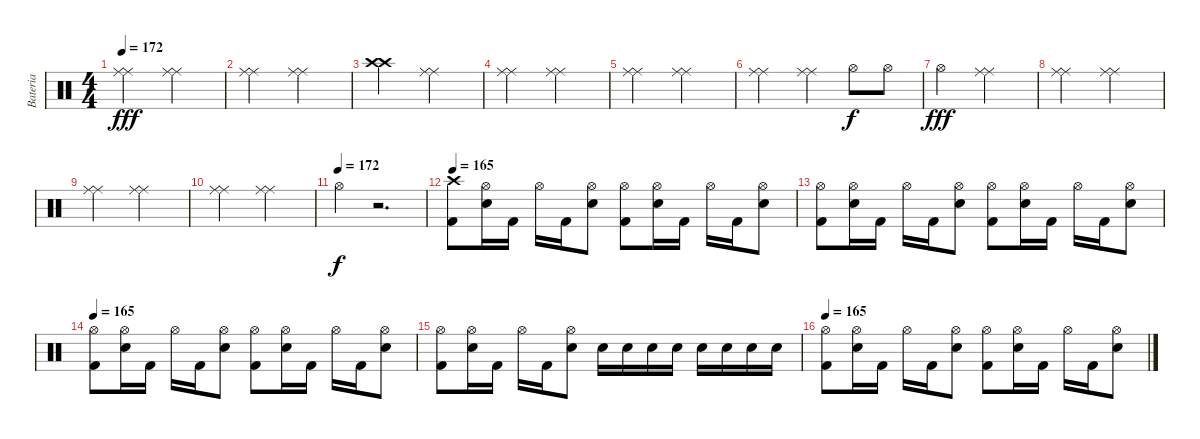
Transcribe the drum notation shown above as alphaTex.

\track ("Bateria" "Bateria") {instrument percussion}
\staff {score}
\articulation defaults
\ts (4 4)
\tempo 172
\clef neutral
\ks c
("Ride (middle)" "Ride (middle)").2{dy fff} ("Ride (middle)" "Ride (middle)").2 |
("Ride (middle)" "Ride (middle)").2 ("Ride (middle)" "Ride (middle)").2 |
("Crash high (hit)" "Crash high (hit)").2 ("Ride (middle)" "Ride (middle)").2 |
("Ride (middle)" "Ride (middle)").2 ("Ride (middle)" "Ride (middle)").2 |
("Ride (middle)" "Ride (middle)").2 ("Ride (middle)" "Ride (middle)").2 |
("Ride (middle)" "Ride (middle)").2 ("Ride (middle)" "Ride (middle)").4 "Hi-Hat (open)".8{dy f} "Hi-Hat (open)".8 |
"Hi-Hat (open)".2{dy fff} ("Ride (middle)" "Ride (middle)").2 |
("Ride (middle)" "Ride (middle)").2 ("Ride (middle)" "Ride (middle)").2 |
("Ride (middle)" "Ride (middle)").2 ("Ride (middle)" "Ride (middle)").2 |
("Ride (middle)" "Ride (middle)").2 ("Ride (middle)" "Ride (middle)").2 |
\tempo (172)
"Hi-Hat (open)".4{dy f} r.2{d} |
\tempo 165
("Crash high (hit)" "Kick (hit) 2").8 ("Hi-Hat (open)" "Electric Snare (hit)").16 "Kick (hit) 2".16 "Hi-Hat (open)".16 "Kick (hit) 2".16 ("Hi-Hat (open)" "Electric Snare (hit)").8 ("Hi-Hat (open)" "Kick (hit) 2").8 ("Hi-Hat (open)" "Electric Snare (hit)").16 "Kick (hit) 2".16 "Hi-Hat (open)".16 "Kick (hit) 2".16 ("Hi-Hat (open)" "Electric Snare (hit)").8 |
("Hi-Hat (open)" "Kick (hit) 2").8 ("Hi-Hat (open)" "Electric Snare (hit)").16 "Kick (hit) 2".16 "Hi-Hat (open)".16 "Kick (hit) 2".16 ("Hi-Hat (open)" "Electric Snare (hit)").8 ("Hi-Hat (open)" "Kick (hit) 2").8 ("Hi-Hat (open)" "Electric Snare (hit)").16 "Kick (hit) 2".16 "Hi-Hat (open)".16 "Kick (hit) 2".16 ("Hi-Hat (open)" "Electric Snare (hit)").8 |
\tempo 165
("Hi-Hat (open)" "Kick (hit) 2").8 ("Hi-Hat (open)" "Electric Snare (hit)").16 "Kick (hit) 2".16 "Hi-Hat (open)".16 "Kick (hit) 2".16 ("Hi-Hat (open)" "Electric Snare (hit)").8 ("Hi-Hat (open)" "Kick (hit) 2").8 ("Hi-Hat (open)" "Electric Snare (hit)").16 "Kick (hit) 2".16 "Hi-Hat (open)".16 "Kick (hit) 2".16 ("Hi-Hat (open)" "Electric Snare (hit)").8 |
("Hi-Hat (open)" "Kick (hit) 2").8 ("Hi-Hat (open)" "Electric Snare (hit)").16 "Kick (hit) 2".16 "Hi-Hat (open)".16 "Kick (hit) 2".16 ("Hi-Hat (open)" "Electric Snare (hit)").8 "Electric Snare (hit)".16 "Electric Snare (hit)".16 "Electric Snare (hit)".16 "Electric Snare (hit)".16 "Electric Snare (hit)".16 "Electric Snare (hit)".16 "Electric Snare (hit)".16 "Electric Snare (hit)".16 |
\tempo 165
("Hi-Hat (open)" "Kick (hit) 2").8 ("Hi-Hat (open)" "Electric Snare (hit)").16 "Kick (hit) 2".16 "Hi-Hat (open)".16 "Kick (hit) 2".16 ("Hi-Hat (open)" "Electric Snare (hit)").8 ("Hi-Hat (open)" "Kick (hit) 2").8 ("Hi-Hat (open)" "Electric Snare (hit)").16 "Kick (hit) 2".16 "Hi-Hat (open)".16 "Kick (hit) 2".16 ("Hi-Hat (open)" "Electric Snare (hit)").8
